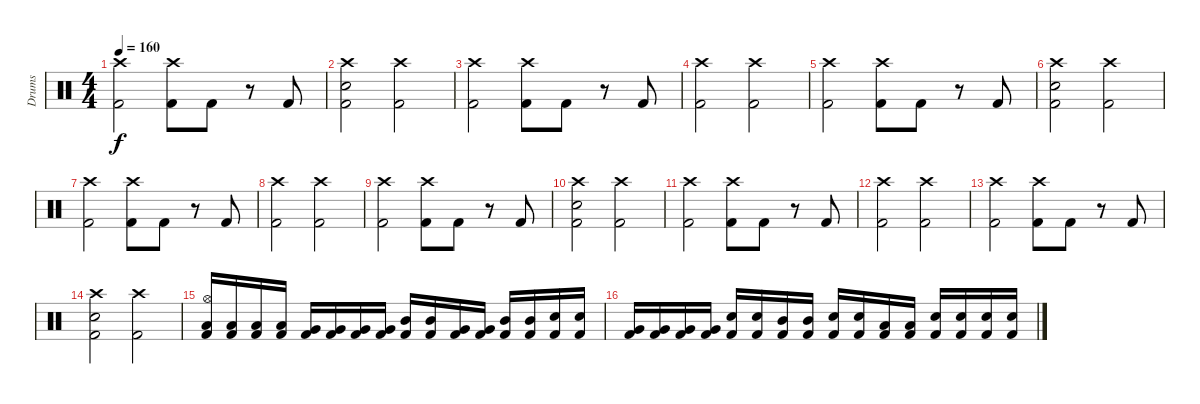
\track ("Drums" "Drums") {instrument percussion}
\staff {score}
\articulation defaults
\ts (4 4)
\tempo 160
\clef neutral
\ks c
("Crash high (hit)" "Kick (hit) 2").2{dy f} ("Crash high (hit)" "Kick (hit) 2").8 "Kick (hit) 2".8 r.8 "Kick (hit) 2".8 |
("Crash high (hit)" "Electric Snare (hit)" "Kick (hit) 2").2 ("Crash high (hit)" "Kick (hit) 2").2 |
("Crash high (hit)" "Kick (hit) 2").2 ("Crash high (hit)" "Kick (hit) 2").8 "Kick (hit) 2".8 r.8 "Kick (hit) 2".8 |
("Crash high (hit)" "Kick (hit) 2").2 ("Crash high (hit)" "Kick (hit) 2").2 |
("Crash high (hit)" "Kick (hit) 2").2 ("Crash high (hit)" "Kick (hit) 2").8 "Kick (hit) 2".8 r.8 "Kick (hit) 2".8 |
("Crash high (hit)" "Electric Snare (hit)" "Kick (hit) 2").2 ("Crash high (hit)" "Kick (hit) 2").2 |
("Crash high (hit)" "Kick (hit) 2").2 ("Crash high (hit)" "Kick (hit) 2").8 "Kick (hit) 2".8 r.8 "Kick (hit) 2".8 |
("Crash high (hit)" "Kick (hit) 2").2 ("Crash high (hit)" "Kick (hit) 2").2 |
("Crash high (hit)" "Kick (hit) 2").2 ("Crash high (hit)" "Kick (hit) 2").8 "Kick (hit) 2".8 r.8 "Kick (hit) 2".8 |
("Crash high (hit)" "Electric Snare (hit)" "Kick (hit) 2").2 ("Crash high (hit)" "Kick (hit) 2").2 |
("Crash high (hit)" "Kick (hit) 2").2 ("Crash high (hit)" "Kick (hit) 2").8 "Kick (hit) 2".8 r.8 "Kick (hit) 2".8 |
("Crash high (hit)" "Kick (hit) 2").2 ("Crash high (hit)" "Kick (hit) 2").2 |
("Crash high (hit)" "Kick (hit) 2").2 ("Crash high (hit)" "Kick (hit) 2").8 "Kick (hit) 2".8 r.8 "Kick (hit) 2".8 |
("Crash high (hit)" "Electric Snare (hit)" "Kick (hit) 2").2 ("Crash high (hit)" "Kick (hit) 2").2 |
("Hi-Hat (open)" "Low Floor Tom (hit)" "Kick (hit) 2").16 ("Low Floor Tom (hit)" "Kick (hit) 2").16 ("Low Floor Tom (hit)" "Kick (hit) 2").16 ("Low Floor Tom (hit)" "Kick (hit) 2").16 ("Very Low Tom (hit)" "Kick (hit) 2").16 ("Very Low Tom (hit)" "Kick (hit) 2").16 ("Very Low Tom (hit)" "Kick (hit) 2").16 ("Very Low Tom (hit)" "Kick (hit) 2").16 ("Mid Tom (hit)" "Kick (hit) 2").16 ("Mid Tom (hit)" "Kick (hit) 2").16 ("Very Low Tom (hit)" "Kick (hit) 2").16 ("Very Low Tom (hit)" "Kick (hit) 2").16 ("Mid Tom (hit)" "Kick (hit) 2").16 ("Mid Tom (hit)" "Kick (hit) 2").16 ("Electric Snare (hit)" "Kick (hit) 2").16 ("Electric Snare (hit)" "Kick (hit) 2").16 |
("Very Low Tom (hit)" "Kick (hit) 2").16 ("Very Low Tom (hit)" "Kick (hit) 2").16 ("Very Low Tom (hit)" "Kick (hit) 2").16 ("Very Low Tom (hit)" "Kick (hit) 2").16 ("Electric Snare (hit)" "Kick (hit) 2").16 ("Electric Snare (hit)" "Kick (hit) 2").16 ("Mid Tom (hit)" "Kick (hit) 2").16 ("Mid Tom (hit)" "Kick (hit) 2").16 ("Electric Snare (hit)" "Kick (hit) 2").16 ("Electric Snare (hit)" "Kick (hit) 2").16 ("Low Floor Tom (hit)" "Kick (hit) 2").16 ("Low Floor Tom (hit)" "Kick (hit) 2").16 ("Electric Snare (hit)" "Kick (hit) 2").16 ("Electric Snare (hit)" "Kick (hit) 2").16 ("Electric Snare (hit)" "Kick (hit) 2").16 ("Electric Snare (hit)" "Kick (hit) 2").16
